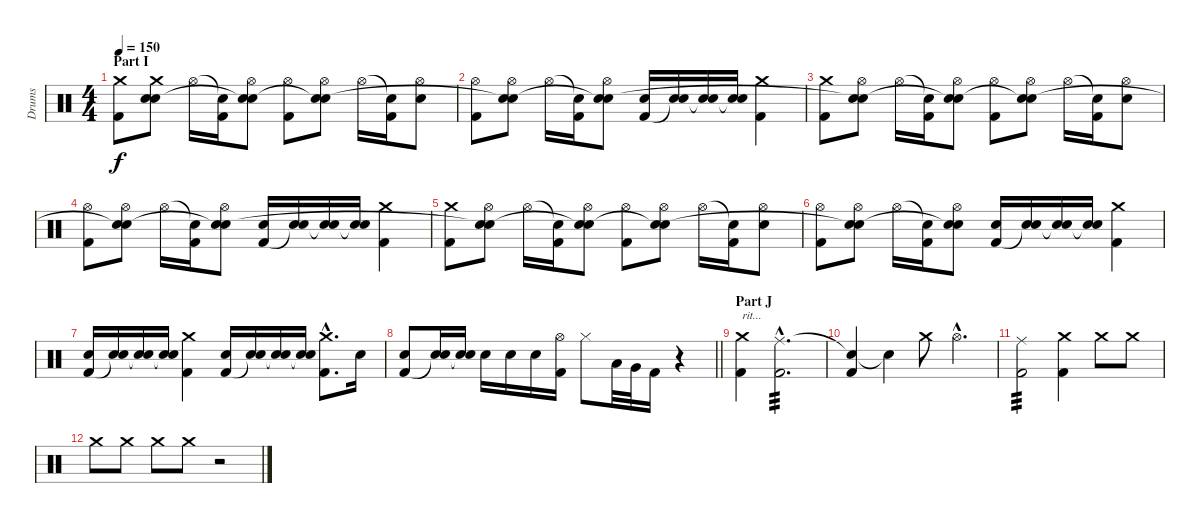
\track ("Drums" "Drums") {instrument percussion}
\staff {score}
\articulation defaults
\ts (4 4)
\section ("" "Part I")
\tempo 150
\clef neutral
\ks c
("Crash medium (hit)" "Kick (hit) 2").8{dy f} ("Crash medium (hit)" "Electric Snare (hit)" "Snare (hit)"{t}).8 "Hi-Hat (open)".16 ("Snare (hit)"{t} "Kick (hit) 2").16 ("Hi-Hat (open)" "Electric Snare (hit)" "Snare (hit)"{t}).8 ("Hi-Hat (open)" "Kick (hit) 2").8 ("Hi-Hat (open)" "Electric Snare (hit)" "Snare (hit)"{t}).8 "Hi-Hat (open)".16 ("Snare (hit)"{t} "Kick (hit) 2").16 ("Hi-Hat (open)" "Electric Snare (hit)").8 |
("Hi-Hat (open)" "Kick (hit) 2").8 ("Hi-Hat (open)" "Electric Snare (hit)" "Snare (hit)"{t}).8 "Hi-Hat (open)".16 ("Snare (hit)"{t} "Kick (hit) 2").16 ("Hi-Hat (open)" "Electric Snare (hit)" "Snare (hit)"{t}).8 ("Electric Snare (hit)" "Kick (hit) 2").16 ("Electric Snare (hit)" "Snare (hit)"{t}).16 ("Electric Snare (hit)" "Snare (hit)"{t}).16 ("Electric Snare (hit)" "Snare (hit)"{t}).16 ("Crash medium (hit)" "Kick (hit) 2").4 |
("Crash medium (hit)" "Kick (hit) 2").8 ("Hi-Hat (open)" "Electric Snare (hit)" "Snare (hit)"{t}).8 "Hi-Hat (open)".16 ("Snare (hit)"{t} "Kick (hit) 2").16 ("Hi-Hat (open)" "Electric Snare (hit)" "Snare (hit)"{t}).8 ("Hi-Hat (open)" "Kick (hit) 2").8 ("Hi-Hat (open)" "Electric Snare (hit)" "Snare (hit)"{t}).8 "Hi-Hat (open)".16 ("Snare (hit)"{t} "Kick (hit) 2").16 ("Hi-Hat (open)" "Electric Snare (hit)").8 |
("Hi-Hat (open)" "Kick (hit) 2").8 ("Hi-Hat (open)" "Electric Snare (hit)" "Snare (hit)"{t}).8 "Hi-Hat (open)".16 ("Snare (hit)"{t} "Kick (hit) 2").16 ("Hi-Hat (open)" "Electric Snare (hit)" "Snare (hit)"{t}).8 ("Electric Snare (hit)" "Kick (hit) 2").16 ("Electric Snare (hit)" "Snare (hit)"{t}).16 ("Electric Snare (hit)" "Snare (hit)"{t}).16 ("Electric Snare (hit)" "Snare (hit)"{t}).16 ("Crash medium (hit)" "Kick (hit) 2").4 |
("Crash medium (hit)" "Kick (hit) 2").8 ("Hi-Hat (open)" "Electric Snare (hit)" "Snare (hit)"{t}).8 "Hi-Hat (open)".16 ("Snare (hit)"{t} "Kick (hit) 2").16 ("Hi-Hat (open)" "Electric Snare (hit)" "Snare (hit)"{t}).8 ("Hi-Hat (open)" "Kick (hit) 2").8 ("Hi-Hat (open)" "Electric Snare (hit)" "Snare (hit)"{t}).8 "Hi-Hat (open)".16 ("Snare (hit)"{t} "Kick (hit) 2").16 ("Hi-Hat (open)" "Electric Snare (hit)").8 |
("Hi-Hat (open)" "Kick (hit) 2").8 ("Hi-Hat (open)" "Electric Snare (hit)" "Snare (hit)"{t}).8 "Hi-Hat (open)".16 ("Snare (hit)"{t} "Kick (hit) 2").16 ("Hi-Hat (open)" "Electric Snare (hit)" "Snare (hit)"{t}).8 ("Electric Snare (hit)" "Kick (hit) 2").16 ("Electric Snare (hit)" "Snare (hit)"{t}).16 ("Electric Snare (hit)" "Snare (hit)"{t}).16 ("Electric Snare (hit)" "Snare (hit)"{t}).16 ("Crash medium (hit)" "Kick (hit) 2").4 |
("Electric Snare (hit)" "Kick (hit) 2").16 ("Electric Snare (hit)" "Snare (hit)"{t}).16 ("Electric Snare (hit)" "Snare (hit)"{t}).16 ("Electric Snare (hit)" "Snare (hit)"{t}).16 ("Crash medium (hit)" "Kick (hit) 2").4 ("Electric Snare (hit)" "Kick (hit) 2").16 ("Electric Snare (hit)" "Snare (hit)"{t}).16 ("Electric Snare (hit)" "Snare (hit)"{t}).16 ("Electric Snare (hit)" "Snare (hit)"{t}).16 ("Crash medium (hit)"{hac} "Kick (hit) 2"{hac}).8{d} "Electric Snare (hit)".16 |
\barLineRight lightlight
("Electric Snare (hit)" "Kick (hit) 2").8 ("Electric Snare (hit)" "Snare (hit)"{t}).16 ("Electric Snare (hit)" "Snare (hit)"{t}).16 "Electric Snare (hit)".16 "Electric Snare (hit)".16 "Electric Snare (hit)".16 ("Hi-Hat (open)" "Kick (hit) 2").16 "Hi-Hat (closed)".8 "Low Tom (hit)".32 "Very Low Tom (hit)".32 "Kick (hit) 2".16 r.4 |
\section ("" "Part J")
("Crash medium (hit)" "Kick (hit) 2").4{txt "rit..."} ("Ride (middle)"{hac} "Kick (hit) 2"{hac}).2{d tp 3} |
("Snare (hit)"{t} "Kick (hit) 2").4 "Snare (hit)"{t}.4 "Crash medium (hit)".8 "Hi-Hat (open)"{hac}.4{d} |
("Ride (middle)" "Kick (hit) 2").2{tp 3} ("Crash medium (hit)" "Kick (hit) 2").4 "Crash medium (hit)".8 "Crash medium (hit)".8 |
"Crash medium (hit)".8 "Crash medium (hit)".8 "Crash medium (hit)".8 "Crash medium (hit)".8 r.2
